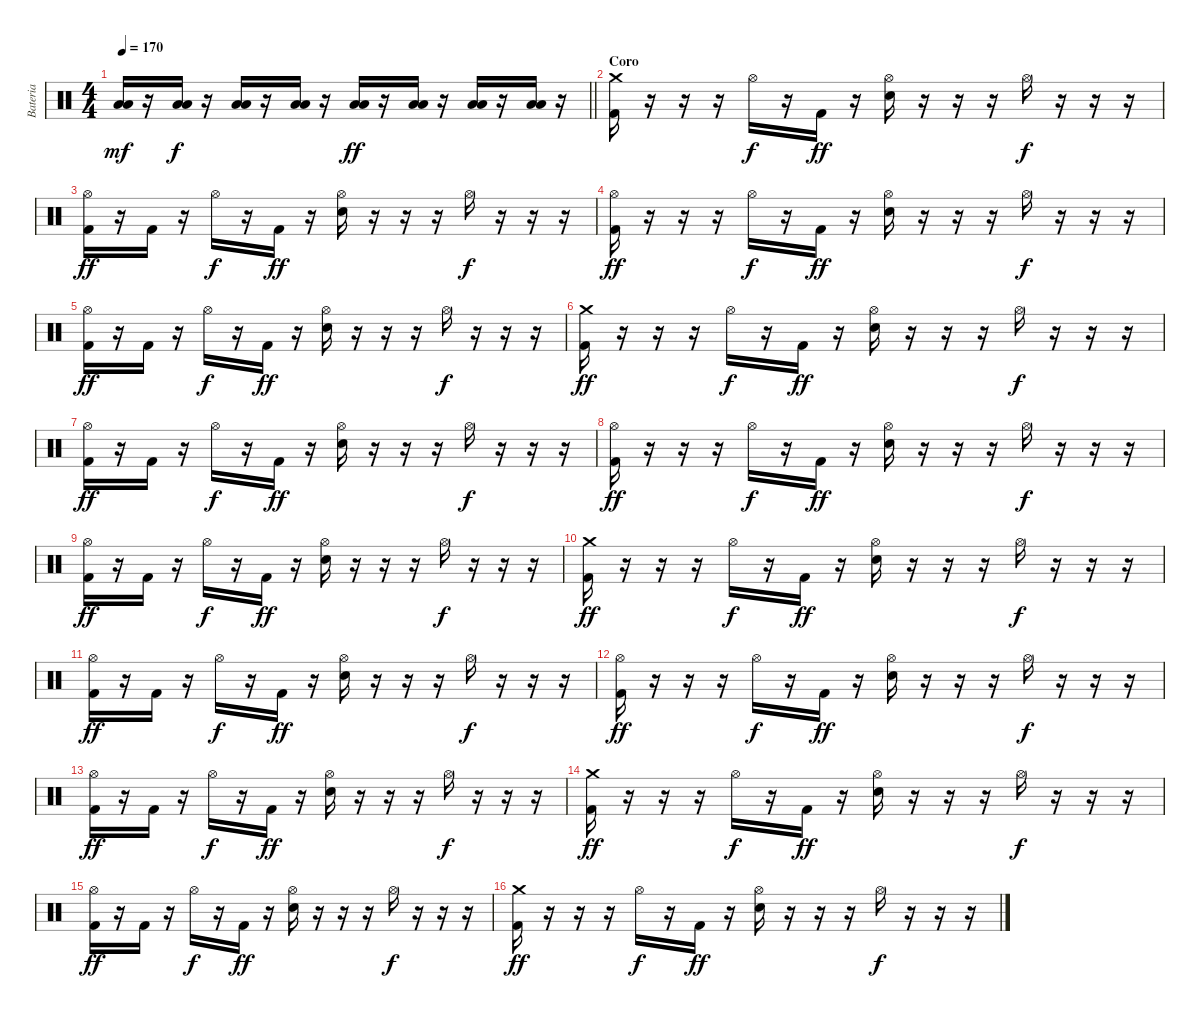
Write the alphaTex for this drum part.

\track ("Bateria" "Bateria") {instrument percussion}
\staff {score}
\articulation defaults
\ts (4 4)
\tempo 170
\clef neutral
\barLineRight lightlight
\ks c
("Low Tom (hit)" "Low Floor Tom (hit)").16{dy mf} r.16 ("Low Tom (hit)" "Low Floor Tom (hit)").16{dy f} r.16 ("Low Tom (hit)" "Low Floor Tom (hit)").16 r.16 ("Low Tom (hit)" "Low Floor Tom (hit)").16 r.16 ("Low Tom (hit)" "Low Floor Tom (hit)").16{dy ff} r.16 ("Low Tom (hit)" "Low Floor Tom (hit)").16 r.16 ("Low Tom (hit)" "Low Floor Tom (hit)").16 r.16 ("Low Tom (hit)" "Low Floor Tom (hit)").16 r.16 |
\section ("" "Coro")
("Crash medium (hit)" "Kick (hit) 2").16 r.16 r.16 r.16 "Hi-Hat (open)".16{dy f} r.16 "Kick (hit) 2".16{dy ff} r.16 ("Hi-Hat (open)" "Electric Snare (hit)").16 r.16 r.16 r.16 "Hi-Hat (open)".16{dy f} r.16 r.16 r.16 |
("Hi-Hat (open)" "Kick (hit) 2").16{dy ff} r.16 "Kick (hit) 2".16 r.16 "Hi-Hat (open)".16{dy f} r.16 "Kick (hit) 2".16{dy ff} r.16 ("Hi-Hat (open)" "Electric Snare (hit)").16 r.16 r.16 r.16 "Hi-Hat (open)".16{dy f} r.16 r.16 r.16 |
("Hi-Hat (open)" "Kick (hit) 2").16{dy ff} r.16 r.16 r.16 "Hi-Hat (open)".16{dy f} r.16 "Kick (hit) 2".16{dy ff} r.16 ("Hi-Hat (open)" "Electric Snare (hit)").16 r.16 r.16 r.16 "Hi-Hat (open)".16{dy f} r.16 r.16 r.16 |
("Hi-Hat (open)" "Kick (hit) 2").16{dy ff} r.16 "Kick (hit) 2".16 r.16 "Hi-Hat (open)".16{dy f} r.16 "Kick (hit) 2".16{dy ff} r.16 ("Hi-Hat (open)" "Electric Snare (hit)").16 r.16 r.16 r.16 "Hi-Hat (open)".16{dy f} r.16 r.16 r.16 |
("Crash medium (hit)" "Kick (hit) 2").16{dy ff} r.16 r.16 r.16 "Hi-Hat (open)".16{dy f} r.16 "Kick (hit) 2".16{dy ff} r.16 ("Hi-Hat (open)" "Electric Snare (hit)").16 r.16 r.16 r.16 "Hi-Hat (open)".16{dy f} r.16 r.16 r.16 |
("Hi-Hat (open)" "Kick (hit) 2").16{dy ff} r.16 "Kick (hit) 2".16 r.16 "Hi-Hat (open)".16{dy f} r.16 "Kick (hit) 2".16{dy ff} r.16 ("Hi-Hat (open)" "Electric Snare (hit)").16 r.16 r.16 r.16 "Hi-Hat (open)".16{dy f} r.16 r.16 r.16 |
("Hi-Hat (open)" "Kick (hit) 2").16{dy ff} r.16 r.16 r.16 "Hi-Hat (open)".16{dy f} r.16 "Kick (hit) 2".16{dy ff} r.16 ("Hi-Hat (open)" "Electric Snare (hit)").16 r.16 r.16 r.16 "Hi-Hat (open)".16{dy f} r.16 r.16 r.16 |
("Hi-Hat (open)" "Kick (hit) 2").16{dy ff} r.16 "Kick (hit) 2".16 r.16 "Hi-Hat (open)".16{dy f} r.16 "Kick (hit) 2".16{dy ff} r.16 ("Hi-Hat (open)" "Electric Snare (hit)").16 r.16 r.16 r.16 "Hi-Hat (open)".16{dy f} r.16 r.16 r.16 |
("Crash medium (hit)" "Kick (hit) 2").16{dy ff} r.16 r.16 r.16 "Hi-Hat (open)".16{dy f} r.16 "Kick (hit) 2".16{dy ff} r.16 ("Hi-Hat (open)" "Electric Snare (hit)").16 r.16 r.16 r.16 "Hi-Hat (open)".16{dy f} r.16 r.16 r.16 |
("Hi-Hat (open)" "Kick (hit) 2").16{dy ff} r.16 "Kick (hit) 2".16 r.16 "Hi-Hat (open)".16{dy f} r.16 "Kick (hit) 2".16{dy ff} r.16 ("Hi-Hat (open)" "Electric Snare (hit)").16 r.16 r.16 r.16 "Hi-Hat (open)".16{dy f} r.16 r.16 r.16 |
("Hi-Hat (open)" "Kick (hit) 2").16{dy ff} r.16 r.16 r.16 "Hi-Hat (open)".16{dy f} r.16 "Kick (hit) 2".16{dy ff} r.16 ("Hi-Hat (open)" "Electric Snare (hit)").16 r.16 r.16 r.16 "Hi-Hat (open)".16{dy f} r.16 r.16 r.16 |
("Hi-Hat (open)" "Kick (hit) 2").16{dy ff} r.16 "Kick (hit) 2".16 r.16 "Hi-Hat (open)".16{dy f} r.16 "Kick (hit) 2".16{dy ff} r.16 ("Hi-Hat (open)" "Electric Snare (hit)").16 r.16 r.16 r.16 "Hi-Hat (open)".16{dy f} r.16 r.16 r.16 |
("Crash medium (hit)" "Kick (hit) 2").16{dy ff} r.16 r.16 r.16 "Hi-Hat (open)".16{dy f} r.16 "Kick (hit) 2".16{dy ff} r.16 ("Hi-Hat (open)" "Electric Snare (hit)").16 r.16 r.16 r.16 "Hi-Hat (open)".16{dy f} r.16 r.16 r.16 |
("Hi-Hat (open)" "Kick (hit) 2").16{dy ff} r.16 "Kick (hit) 2".16 r.16 "Hi-Hat (open)".16{dy f} r.16 "Kick (hit) 2".16{dy ff} r.16 ("Hi-Hat (open)" "Electric Snare (hit)").16 r.16 r.16 r.16 "Hi-Hat (open)".16{dy f} r.16 r.16 r.16 |
("Crash medium (hit)" "Kick (hit) 2").16{dy ff} r.16 r.16 r.16 "Hi-Hat (open)".16{dy f} r.16 "Kick (hit) 2".16{dy ff} r.16 ("Hi-Hat (open)" "Electric Snare (hit)").16 r.16 r.16 r.16 "Hi-Hat (open)".16{dy f} r.16 r.16 r.16
